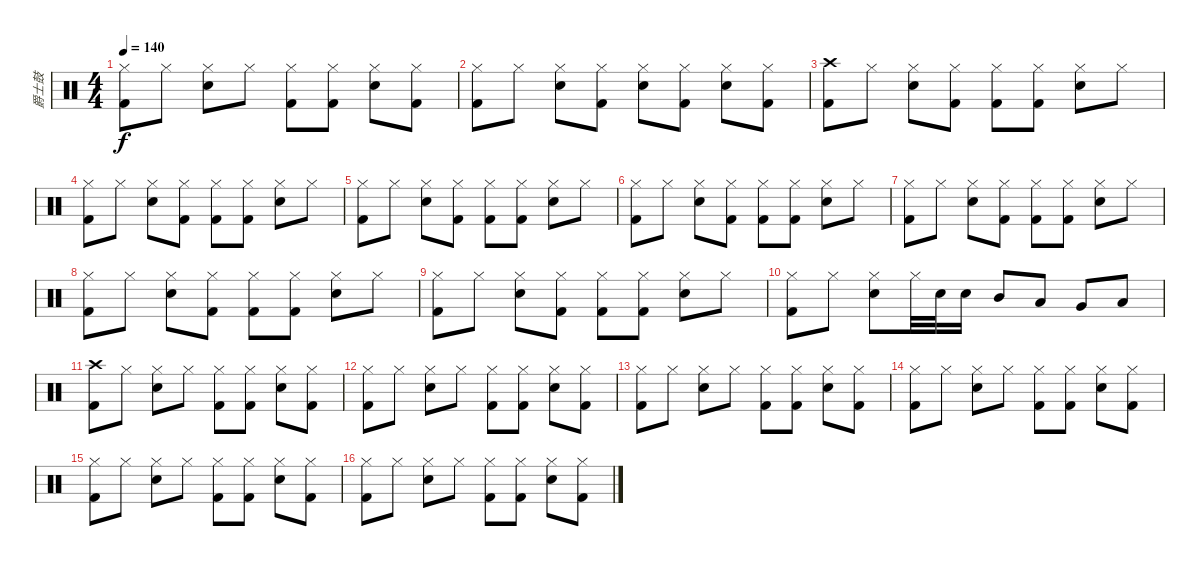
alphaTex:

\track ("爵士鼓" "爵士鼓") {instrument percussion}
\staff {score}
\articulation defaults
\ts (4 4)
\tempo 140
\clef neutral
\ks c
("Hi-Hat (closed)" "Kick (hit) 2").8{dy f} "Hi-Hat (closed)".8 ("Hi-Hat (closed)" "Electric Snare (hit)").8 "Hi-Hat (closed)".8 ("Hi-Hat (closed)" "Kick (hit) 2").8 ("Hi-Hat (closed)" "Kick (hit) 2").8 ("Hi-Hat (closed)" "Electric Snare (hit)").8 ("Hi-Hat (closed)" "Kick (hit) 2").8 |
("Hi-Hat (closed)" "Kick (hit) 2").8 "Hi-Hat (closed)".8 ("Hi-Hat (closed)" "Electric Snare (hit)").8 ("Hi-Hat (closed)" "Kick (hit) 2").8 ("Hi-Hat (closed)" "Electric Snare (hit)").8 ("Hi-Hat (closed)" "Kick (hit) 2").8 ("Hi-Hat (closed)" "Electric Snare (hit)").8 ("Hi-Hat (closed)" "Kick (hit) 2").8 |
("Crash high (hit)" "Kick (hit) 2").8 "Hi-Hat (closed)".8 ("Hi-Hat (closed)" "Electric Snare (hit)").8 ("Hi-Hat (closed)" "Kick (hit) 2").8 ("Hi-Hat (closed)" "Kick (hit) 2").8 ("Hi-Hat (closed)" "Kick (hit) 2").8 ("Hi-Hat (closed)" "Electric Snare (hit)").8 "Hi-Hat (closed)".8 |
("Hi-Hat (closed)" "Kick (hit) 2").8 "Hi-Hat (closed)".8 ("Hi-Hat (closed)" "Electric Snare (hit)").8 ("Hi-Hat (closed)" "Kick (hit) 2").8 ("Hi-Hat (closed)" "Kick (hit) 2").8 ("Hi-Hat (closed)" "Kick (hit) 2").8 ("Hi-Hat (closed)" "Electric Snare (hit)").8 "Hi-Hat (closed)".8 |
("Hi-Hat (closed)" "Kick (hit) 2").8 "Hi-Hat (closed)".8 ("Hi-Hat (closed)" "Electric Snare (hit)").8 ("Hi-Hat (closed)" "Kick (hit) 2").8 ("Hi-Hat (closed)" "Kick (hit) 2").8 ("Hi-Hat (closed)" "Kick (hit) 2").8 ("Hi-Hat (closed)" "Electric Snare (hit)").8 "Hi-Hat (closed)".8 |
("Hi-Hat (closed)" "Kick (hit) 2").8 "Hi-Hat (closed)".8 ("Hi-Hat (closed)" "Electric Snare (hit)").8 ("Hi-Hat (closed)" "Kick (hit) 2").8 ("Hi-Hat (closed)" "Kick (hit) 2").8 ("Hi-Hat (closed)" "Kick (hit) 2").8 ("Hi-Hat (closed)" "Electric Snare (hit)").8 "Hi-Hat (closed)".8 |
("Hi-Hat (closed)" "Kick (hit) 2").8 "Hi-Hat (closed)".8 ("Hi-Hat (closed)" "Electric Snare (hit)").8 ("Hi-Hat (closed)" "Kick (hit) 2").8 ("Hi-Hat (closed)" "Kick (hit) 2").8 ("Hi-Hat (closed)" "Kick (hit) 2").8 ("Hi-Hat (closed)" "Electric Snare (hit)").8 "Hi-Hat (closed)".8 |
("Hi-Hat (closed)" "Kick (hit) 2").8 "Hi-Hat (closed)".8 ("Hi-Hat (closed)" "Electric Snare (hit)").8 ("Hi-Hat (closed)" "Kick (hit) 2").8 ("Hi-Hat (closed)" "Kick (hit) 2").8 ("Hi-Hat (closed)" "Kick (hit) 2").8 ("Hi-Hat (closed)" "Electric Snare (hit)").8 "Hi-Hat (closed)".8 |
("Hi-Hat (closed)" "Kick (hit) 2").8 "Hi-Hat (closed)".8 ("Hi-Hat (closed)" "Electric Snare (hit)").8 ("Hi-Hat (closed)" "Kick (hit) 2").8 ("Hi-Hat (closed)" "Kick (hit) 2").8 ("Hi-Hat (closed)" "Kick (hit) 2").8 ("Hi-Hat (closed)" "Electric Snare (hit)").8 "Hi-Hat (closed)".8 |
("Hi-Hat (closed)" "Kick (hit) 2").8 "Hi-Hat (closed)".8 ("Hi-Hat (closed)" "Electric Snare (hit)").8 "Hi-Hat (closed)".32 "Electric Snare (hit)".32 "Electric Snare (hit)".16 "Mid Tom (hit)".8 "Low Tom (hit)".8 "Very Low Tom (hit)".8 "Low Floor Tom (hit)".8 |
("Crash high (hit)" "Kick (hit) 2").8 "Hi-Hat (closed)".8 ("Hi-Hat (closed)" "Electric Snare (hit)").8 "Hi-Hat (closed)".8 ("Hi-Hat (closed)" "Kick (hit) 2").8 ("Hi-Hat (closed)" "Kick (hit) 2").8 ("Hi-Hat (closed)" "Electric Snare (hit)").8 ("Hi-Hat (closed)" "Kick (hit) 2").8 |
("Hi-Hat (closed)" "Kick (hit) 2").8 "Hi-Hat (closed)".8 ("Hi-Hat (closed)" "Electric Snare (hit)").8 "Hi-Hat (closed)".8 ("Hi-Hat (closed)" "Kick (hit) 2").8 ("Hi-Hat (closed)" "Kick (hit) 2").8 ("Hi-Hat (closed)" "Electric Snare (hit)").8 ("Hi-Hat (closed)" "Kick (hit) 2").8 |
("Hi-Hat (closed)" "Kick (hit) 2").8 "Hi-Hat (closed)".8 ("Hi-Hat (closed)" "Electric Snare (hit)").8 "Hi-Hat (closed)".8 ("Hi-Hat (closed)" "Kick (hit) 2").8 ("Hi-Hat (closed)" "Kick (hit) 2").8 ("Hi-Hat (closed)" "Electric Snare (hit)").8 ("Hi-Hat (closed)" "Kick (hit) 2").8 |
("Hi-Hat (closed)" "Kick (hit) 2").8 "Hi-Hat (closed)".8 ("Hi-Hat (closed)" "Electric Snare (hit)").8 "Hi-Hat (closed)".8 ("Hi-Hat (closed)" "Kick (hit) 2").8 ("Hi-Hat (closed)" "Kick (hit) 2").8 ("Hi-Hat (closed)" "Electric Snare (hit)").8 ("Hi-Hat (closed)" "Kick (hit) 2").8 |
("Hi-Hat (closed)" "Kick (hit) 2").8 "Hi-Hat (closed)".8 ("Hi-Hat (closed)" "Electric Snare (hit)").8 "Hi-Hat (closed)".8 ("Hi-Hat (closed)" "Kick (hit) 2").8 ("Hi-Hat (closed)" "Kick (hit) 2").8 ("Hi-Hat (closed)" "Electric Snare (hit)").8 ("Hi-Hat (closed)" "Kick (hit) 2").8 |
("Hi-Hat (closed)" "Kick (hit) 2").8 "Hi-Hat (closed)".8 ("Hi-Hat (closed)" "Electric Snare (hit)").8 "Hi-Hat (closed)".8 ("Hi-Hat (closed)" "Kick (hit) 2").8 ("Hi-Hat (closed)" "Kick (hit) 2").8 ("Hi-Hat (closed)" "Electric Snare (hit)").8 ("Hi-Hat (closed)" "Kick (hit) 2").8
